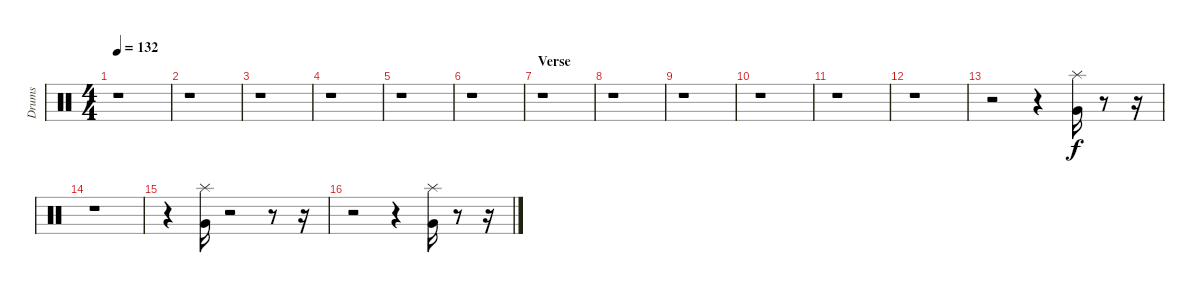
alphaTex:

\track ("Drums" "Drums") {instrument percussion}
\staff {score}
\articulation defaults
\ts (4 4)
\tempo 132
\clef neutral
\ks c
r.1{dy f} |
r.1 |
r.1 |
r.1 |
r.1 |
r.1 |
\section ("" "Verse")
r.1 |
r.1 |
r.1 |
r.1 |
r.1 |
r.1 |
r.2 r.4 ("Very Low Tom (hit)" "Splash (hit)").16 r.8 r.16 |
r.1 |
r.4 ("Very Low Tom (hit)" "Splash (hit)").16 r.2 r.8 r.16 |
r.2 r.4 ("Very Low Tom (hit)" "Splash (hit)").16 r.8 r.16
